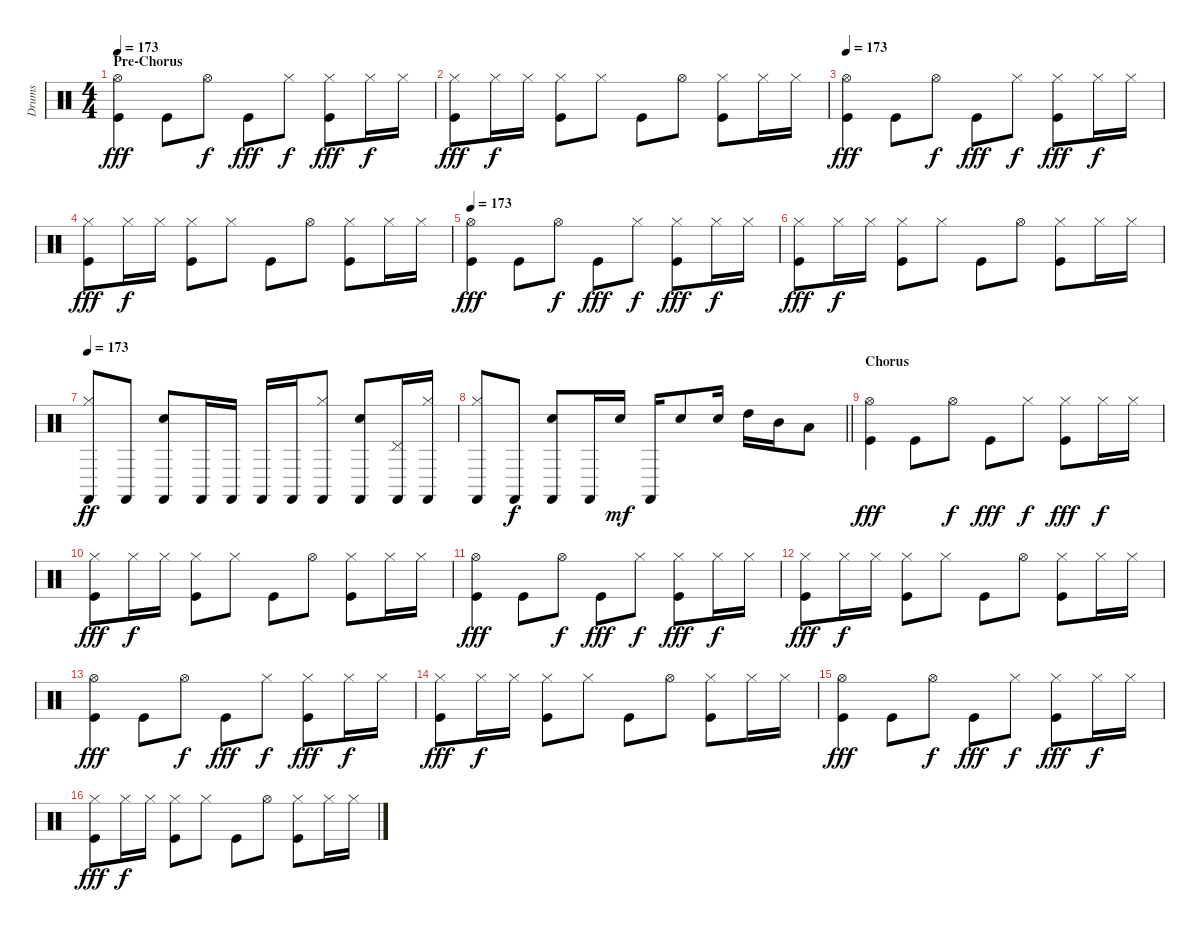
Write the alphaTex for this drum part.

\track ("Drums" "Drums") {instrument percussion}
\staff {score}
\articulation defaults
\ts (4 4)
\section ("" "Pre-Chorus")
\tempo 173
\clef neutral
\ks c
("Kick (hit)" "Hi-Hat (open)").4{dy fff} "Kick (hit)".8 "Hi-Hat (open)".8{dy f} "Kick (hit)".8{dy fff} "Hi-Hat (closed)".8{dy f} ("Kick (hit)" "Hi-Hat (closed)").8{dy fff} "Hi-Hat (closed)".16{dy f} "Hi-Hat (closed)".16 |
("Kick (hit)" "Hi-Hat (closed)").8{dy fff} "Hi-Hat (closed)".16{dy f} "Hi-Hat (closed)".16 ("Kick (hit)" "Hi-Hat (closed)").8 "Hi-Hat (closed)".8 "Kick (hit)".8 "Hi-Hat (open)".8 ("Kick (hit)" "Hi-Hat (closed)").8 "Hi-Hat (closed)".16 "Hi-Hat (closed)".16 |
\tempo 173
("Kick (hit)" "Hi-Hat (open)").4{dy fff} "Kick (hit)".8 "Hi-Hat (open)".8{dy f} "Kick (hit)".8{dy fff} "Hi-Hat (closed)".8{dy f} ("Kick (hit)" "Hi-Hat (closed)").8{dy fff} "Hi-Hat (closed)".16{dy f} "Hi-Hat (closed)".16 |
("Kick (hit)" "Hi-Hat (closed)").8{dy fff} "Hi-Hat (closed)".16{dy f} "Hi-Hat (closed)".16 ("Kick (hit)" "Hi-Hat (closed)").8 "Hi-Hat (closed)".8 "Kick (hit)".8 "Hi-Hat (open)".8 ("Kick (hit)" "Hi-Hat (closed)").8 "Hi-Hat (closed)".16 "Hi-Hat (closed)".16 |
\tempo 173
("Kick (hit)" "Hi-Hat (open)").4{dy fff} "Kick (hit)".8 "Hi-Hat (open)".8{dy f} "Kick (hit)".8{dy fff} "Hi-Hat (closed)".8{dy f} ("Kick (hit)" "Hi-Hat (closed)").8{dy fff} "Hi-Hat (closed)".16{dy f} "Hi-Hat (closed)".16 |
("Kick (hit)" "Hi-Hat (closed)").8{dy fff} "Hi-Hat (closed)".16{dy f} "Hi-Hat (closed)".16 ("Kick (hit)" "Hi-Hat (closed)").8 "Hi-Hat (closed)".8 "Kick (hit)".8 "Hi-Hat (open)".8 ("Kick (hit)" "Hi-Hat (closed)").8 "Hi-Hat (closed)".16 "Hi-Hat (closed)".16 |
\tempo 173
("Hi-Hat (closed)" "Castanets (hit)").8{dy ff} "Castanets (hit)".8 ("Snare (hit) 2" "Castanets (hit)").8 "Castanets (hit)".16 "Castanets (hit)".16 "Castanets (hit)".16 "Castanets (hit)".16 ("Hi-Hat (closed)" "Castanets (hit)").8 ("Snare (hit) 2" "Castanets (hit)").8 ("Pedal Hi-Hat (hit)" "Castanets (hit)").16 ("Hi-Hat (closed)" "Castanets (hit)").16 |
\barLineRight lightlight
("Hi-Hat (closed)" "Castanets (hit)").8 "Castanets (hit)".8{dy f} ("Snare (hit) 2" "Castanets (hit)").8 "Castanets (hit)".16 "Snare (hit) 2".16{dy mf} "Castanets (hit)".16 "Snare (hit) 2".8 "Snare (hit) 2".16 "High Tom (hit)".16 "Mid Tom (hit)".16 "Low Tom (hit)".8 |
\section ("" "Chorus")
("Kick (hit)" "Hi-Hat (open)").4{dy fff} "Kick (hit)".8 "Hi-Hat (open)".8{dy f} "Kick (hit)".8{dy fff} "Hi-Hat (closed)".8{dy f} ("Kick (hit)" "Hi-Hat (closed)").8{dy fff} "Hi-Hat (closed)".16{dy f} "Hi-Hat (closed)".16 |
("Kick (hit)" "Hi-Hat (closed)").8{dy fff} "Hi-Hat (closed)".16{dy f} "Hi-Hat (closed)".16 ("Kick (hit)" "Hi-Hat (closed)").8 "Hi-Hat (closed)".8 "Kick (hit)".8 "Hi-Hat (open)".8 ("Kick (hit)" "Hi-Hat (closed)").8 "Hi-Hat (closed)".16 "Hi-Hat (closed)".16 |
("Kick (hit)" "Hi-Hat (open)").4{dy fff} "Kick (hit)".8 "Hi-Hat (open)".8{dy f} "Kick (hit)".8{dy fff} "Hi-Hat (closed)".8{dy f} ("Kick (hit)" "Hi-Hat (closed)").8{dy fff} "Hi-Hat (closed)".16{dy f} "Hi-Hat (closed)".16 |
("Kick (hit)" "Hi-Hat (closed)").8{dy fff} "Hi-Hat (closed)".16{dy f} "Hi-Hat (closed)".16 ("Kick (hit)" "Hi-Hat (closed)").8 "Hi-Hat (closed)".8 "Kick (hit)".8 "Hi-Hat (open)".8 ("Kick (hit)" "Hi-Hat (closed)").8 "Hi-Hat (closed)".16 "Hi-Hat (closed)".16 |
("Kick (hit)" "Hi-Hat (open)").4{dy fff} "Kick (hit)".8 "Hi-Hat (open)".8{dy f} "Kick (hit)".8{dy fff} "Hi-Hat (closed)".8{dy f} ("Kick (hit)" "Hi-Hat (closed)").8{dy fff} "Hi-Hat (closed)".16{dy f} "Hi-Hat (closed)".16 |
("Kick (hit)" "Hi-Hat (closed)").8{dy fff} "Hi-Hat (closed)".16{dy f} "Hi-Hat (closed)".16 ("Kick (hit)" "Hi-Hat (closed)").8 "Hi-Hat (closed)".8 "Kick (hit)".8 "Hi-Hat (open)".8 ("Kick (hit)" "Hi-Hat (closed)").8 "Hi-Hat (closed)".16 "Hi-Hat (closed)".16 |
("Kick (hit)" "Hi-Hat (open)").4{dy fff} "Kick (hit)".8 "Hi-Hat (open)".8{dy f} "Kick (hit)".8{dy fff} "Hi-Hat (closed)".8{dy f} ("Kick (hit)" "Hi-Hat (closed)").8{dy fff} "Hi-Hat (closed)".16{dy f} "Hi-Hat (closed)".16 |
("Kick (hit)" "Hi-Hat (closed)").8{dy fff} "Hi-Hat (closed)".16{dy f} "Hi-Hat (closed)".16 ("Kick (hit)" "Hi-Hat (closed)").8 "Hi-Hat (closed)".8 "Kick (hit)".8 "Hi-Hat (open)".8 ("Kick (hit)" "Hi-Hat (closed)").8 "Hi-Hat (closed)".16 "Hi-Hat (closed)".16
